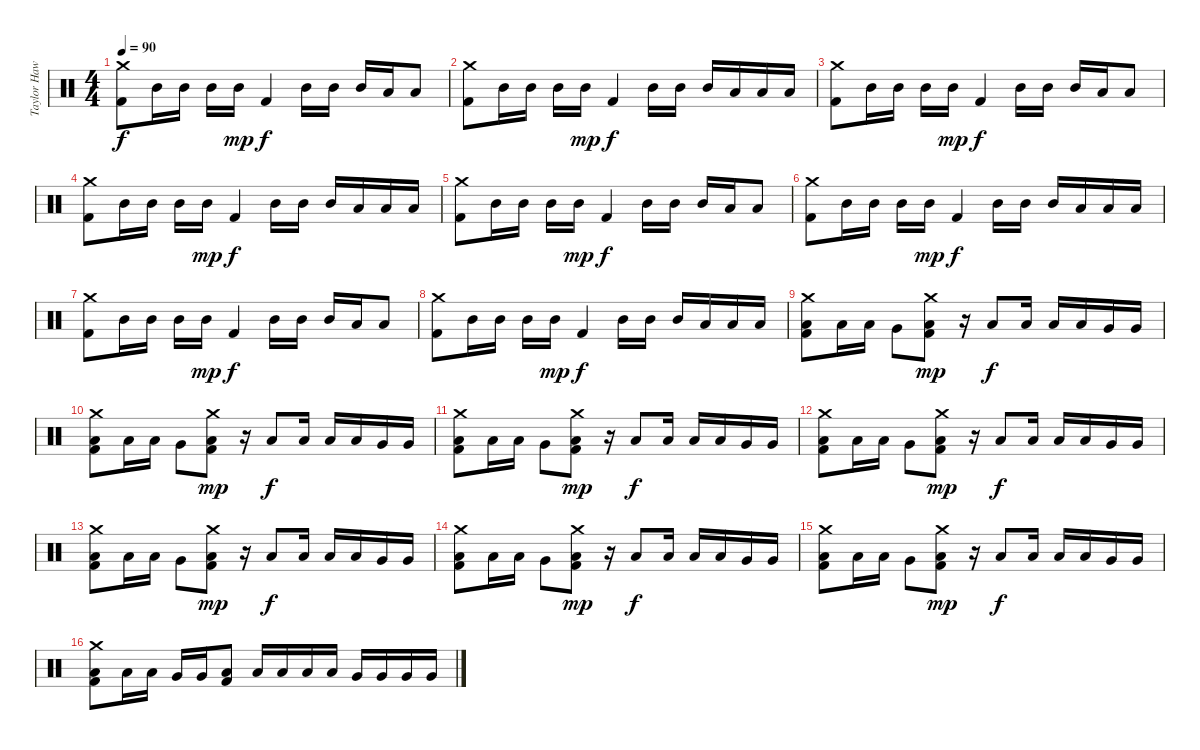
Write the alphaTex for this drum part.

\track ("Taylor Hawkins" "Taylor Haw") {instrument percussion}
\staff {score}
\articulation defaults
\ts (4 4)
\tempo 90
\clef neutral
\ks c
("Crash medium (hit)" "Kick (hit) 2").8{dy f} "Mid Tom (hit)".16 "Mid Tom (hit)".16 "Mid Tom (hit)".16 "Mid Tom (hit)".16{dy mp} "Kick (hit) 2".4{dy f} "Mid Tom (hit)".16 "Mid Tom (hit)".16 "Mid Tom (hit)".16 "Low Tom (hit)".16 "Low Tom (hit)".8 |
("Crash medium (hit)" "Kick (hit) 2").8 "Mid Tom (hit)".16 "Mid Tom (hit)".16 "Mid Tom (hit)".16 "Mid Tom (hit)".16{dy mp} "Kick (hit) 2".4{dy f} "Mid Tom (hit)".16 "Mid Tom (hit)".16 "Mid Tom (hit)".16 "Low Tom (hit)".16 "Low Tom (hit)".16 "Low Tom (hit)".16 |
("Crash medium (hit)" "Kick (hit) 2").8 "Mid Tom (hit)".16 "Mid Tom (hit)".16 "Mid Tom (hit)".16 "Mid Tom (hit)".16{dy mp} "Kick (hit) 2".4{dy f} "Mid Tom (hit)".16 "Mid Tom (hit)".16 "Mid Tom (hit)".16 "Low Tom (hit)".16 "Low Tom (hit)".8 |
("Crash medium (hit)" "Kick (hit) 2").8 "Mid Tom (hit)".16 "Mid Tom (hit)".16 "Mid Tom (hit)".16 "Mid Tom (hit)".16{dy mp} "Kick (hit) 2".4{dy f} "Mid Tom (hit)".16 "Mid Tom (hit)".16 "Mid Tom (hit)".16 "Low Tom (hit)".16 "Low Tom (hit)".16 "Low Tom (hit)".16 |
("Crash medium (hit)" "Kick (hit) 2").8 "Mid Tom (hit)".16 "Mid Tom (hit)".16 "Mid Tom (hit)".16 "Mid Tom (hit)".16{dy mp} "Kick (hit) 2".4{dy f} "Mid Tom (hit)".16 "Mid Tom (hit)".16 "Mid Tom (hit)".16 "Low Tom (hit)".16 "Low Tom (hit)".8 |
("Crash medium (hit)" "Kick (hit) 2").8 "Mid Tom (hit)".16 "Mid Tom (hit)".16 "Mid Tom (hit)".16 "Mid Tom (hit)".16{dy mp} "Kick (hit) 2".4{dy f} "Mid Tom (hit)".16 "Mid Tom (hit)".16 "Mid Tom (hit)".16 "Low Tom (hit)".16 "Low Tom (hit)".16 "Low Tom (hit)".16 |
("Crash medium (hit)" "Kick (hit) 2").8 "Mid Tom (hit)".16 "Mid Tom (hit)".16 "Mid Tom (hit)".16 "Mid Tom (hit)".16{dy mp} "Kick (hit) 2".4{dy f} "Mid Tom (hit)".16 "Mid Tom (hit)".16 "Mid Tom (hit)".16 "Low Tom (hit)".16 "Low Tom (hit)".8 |
("Crash medium (hit)" "Kick (hit) 2").8 "Mid Tom (hit)".16 "Mid Tom (hit)".16 "Mid Tom (hit)".16 "Mid Tom (hit)".16{dy mp} "Kick (hit) 2".4{dy f} "Mid Tom (hit)".16 "Mid Tom (hit)".16 "Mid Tom (hit)".16 "Low Tom (hit)".16 "Low Tom (hit)".16 "Low Tom (hit)".16 |
("Crash medium (hit)" "Low Tom (hit)" "Kick (hit) 2").8 "Low Tom (hit)".16 "Low Tom (hit)".16 "Very Low Tom (hit)".8 ("Crash medium (hit)" "Low Tom (hit)" "Kick (hit) 2").8{dy mp} r.16 "Low Tom (hit)".8{dy f} "Low Tom (hit)".16 "Low Tom (hit)".16 "Low Tom (hit)".16 "Very Low Tom (hit)".16 "Very Low Tom (hit)".16 |
("Crash medium (hit)" "Low Tom (hit)" "Kick (hit) 2").8 "Low Tom (hit)".16 "Low Tom (hit)".16 "Very Low Tom (hit)".8 ("Crash medium (hit)" "Low Tom (hit)" "Kick (hit) 2").8{dy mp} r.16 "Low Tom (hit)".8{dy f} "Low Tom (hit)".16 "Low Tom (hit)".16 "Low Tom (hit)".16 "Very Low Tom (hit)".16 "Very Low Tom (hit)".16 |
("Crash medium (hit)" "Low Tom (hit)" "Kick (hit) 2").8 "Low Tom (hit)".16 "Low Tom (hit)".16 "Very Low Tom (hit)".8 ("Crash medium (hit)" "Low Tom (hit)" "Kick (hit) 2").8{dy mp} r.16 "Low Tom (hit)".8{dy f} "Low Tom (hit)".16 "Low Tom (hit)".16 "Low Tom (hit)".16 "Very Low Tom (hit)".16 "Very Low Tom (hit)".16 |
("Crash medium (hit)" "Low Tom (hit)" "Kick (hit) 2").8 "Low Tom (hit)".16 "Low Tom (hit)".16 "Very Low Tom (hit)".8 ("Crash medium (hit)" "Low Tom (hit)" "Kick (hit) 2").8{dy mp} r.16 "Low Tom (hit)".8{dy f} "Low Tom (hit)".16 "Low Tom (hit)".16 "Low Tom (hit)".16 "Very Low Tom (hit)".16 "Very Low Tom (hit)".16 |
("Crash medium (hit)" "Low Tom (hit)" "Kick (hit) 2").8 "Low Tom (hit)".16 "Low Tom (hit)".16 "Very Low Tom (hit)".8 ("Crash medium (hit)" "Low Tom (hit)" "Kick (hit) 2").8{dy mp} r.16 "Low Tom (hit)".8{dy f} "Low Tom (hit)".16 "Low Tom (hit)".16 "Low Tom (hit)".16 "Very Low Tom (hit)".16 "Very Low Tom (hit)".16 |
("Crash medium (hit)" "Low Tom (hit)" "Kick (hit) 2").8 "Low Tom (hit)".16 "Low Tom (hit)".16 "Very Low Tom (hit)".8 ("Crash medium (hit)" "Low Tom (hit)" "Kick (hit) 2").8{dy mp} r.16 "Low Tom (hit)".8{dy f} "Low Tom (hit)".16 "Low Tom (hit)".16 "Low Tom (hit)".16 "Very Low Tom (hit)".16 "Very Low Tom (hit)".16 |
("Crash medium (hit)" "Low Tom (hit)" "Kick (hit) 2").8 "Low Tom (hit)".16 "Low Tom (hit)".16 "Very Low Tom (hit)".8 ("Crash medium (hit)" "Low Tom (hit)" "Kick (hit) 2").8{dy mp} r.16 "Low Tom (hit)".8{dy f} "Low Tom (hit)".16 "Low Tom (hit)".16 "Low Tom (hit)".16 "Very Low Tom (hit)".16 "Very Low Tom (hit)".16 |
("Crash medium (hit)" "Low Tom (hit)" "Kick (hit) 2").8 "Low Tom (hit)".16 "Low Tom (hit)".16 "Very Low Tom (hit)".16 "Very Low Tom (hit)".16 ("Low Tom (hit)" "Kick (hit) 2").8 "Low Tom (hit)".16 "Low Tom (hit)".16 "Low Tom (hit)".16 "Low Tom (hit)".16 "Very Low Tom (hit)".16 "Very Low Tom (hit)".16 "Very Low Tom (hit)".16 "Very Low Tom (hit)".16
